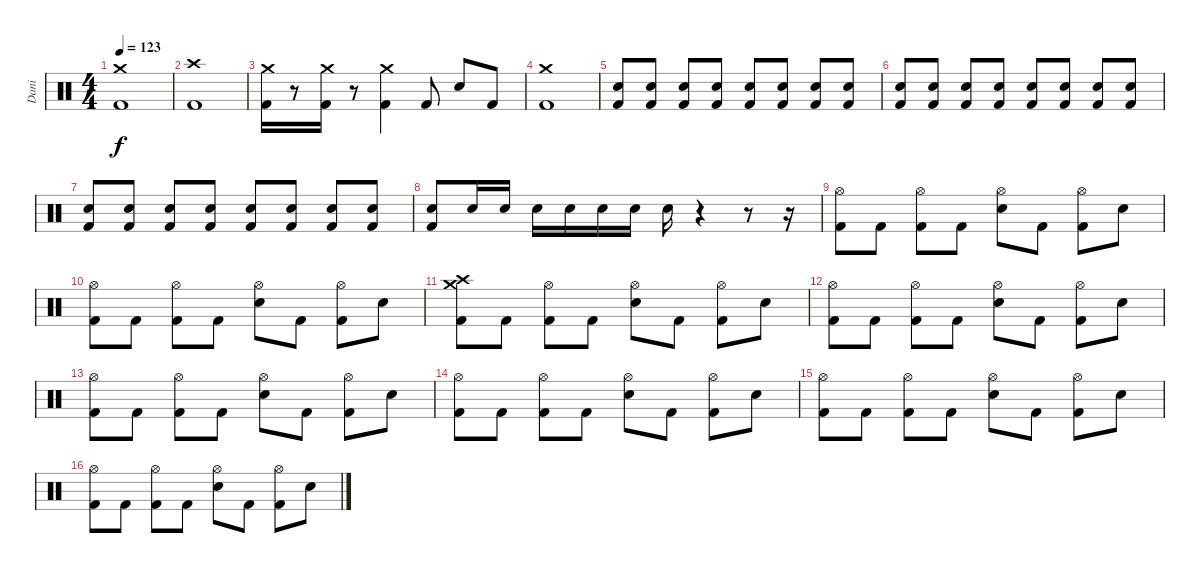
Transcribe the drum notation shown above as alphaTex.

\track ("Dani" "Dani") {instrument percussion}
\staff {score}
\articulation defaults
\ts (4 4)
\tempo 123
\clef neutral
\ks c
("Crash medium (hit)" "Kick (hit) 2").1{dy f} |
("Crash high (hit)" "Kick (hit) 2").1 |
("Crash medium (hit)" "Kick (hit) 2").16 r.8 ("Crash medium (hit)" "Kick (hit) 2").16 r.8 ("Crash medium (hit)" "Kick (hit) 2").4 "Kick (hit) 2".8 "Electric Snare (hit)".8 "Kick (hit) 2".8 |
("Crash medium (hit)" "Kick (hit) 2").1 |
("Electric Snare (hit)" "Kick (hit) 2").8 ("Electric Snare (hit)" "Kick (hit) 2").8 ("Electric Snare (hit)" "Kick (hit) 2").8 ("Electric Snare (hit)" "Kick (hit) 2").8 ("Electric Snare (hit)" "Kick (hit) 2").8 ("Electric Snare (hit)" "Kick (hit) 2").8 ("Electric Snare (hit)" "Kick (hit) 2").8 ("Electric Snare (hit)" "Kick (hit) 2").8 |
("Electric Snare (hit)" "Kick (hit) 2").8 ("Electric Snare (hit)" "Kick (hit) 2").8 ("Electric Snare (hit)" "Kick (hit) 2").8 ("Electric Snare (hit)" "Kick (hit) 2").8 ("Electric Snare (hit)" "Kick (hit) 2").8 ("Electric Snare (hit)" "Kick (hit) 2").8 ("Electric Snare (hit)" "Kick (hit) 2").8 ("Electric Snare (hit)" "Kick (hit) 2").8 |
("Electric Snare (hit)" "Kick (hit) 2").8 ("Electric Snare (hit)" "Kick (hit) 2").8 ("Electric Snare (hit)" "Kick (hit) 2").8 ("Electric Snare (hit)" "Kick (hit) 2").8 ("Electric Snare (hit)" "Kick (hit) 2").8 ("Electric Snare (hit)" "Kick (hit) 2").8 ("Electric Snare (hit)" "Kick (hit) 2").8 ("Electric Snare (hit)" "Kick (hit) 2").8 |
("Electric Snare (hit)" "Kick (hit) 2").8 "Electric Snare (hit)".16 "Electric Snare (hit)".16 "Electric Snare (hit)".16 "Electric Snare (hit)".16 "Electric Snare (hit)".16 "Electric Snare (hit)".16 "Electric Snare (hit)".16 r.4 r.8 r.16 |
("Hi-Hat (open)" "Kick (hit) 2").8 "Kick (hit) 2".8 ("Hi-Hat (open)" "Kick (hit) 2").8 "Kick (hit) 2".8 ("Hi-Hat (open)" "Electric Snare (hit)").8 "Kick (hit) 2".8 ("Hi-Hat (open)" "Kick (hit) 2").8 "Electric Snare (hit)".8 |
("Hi-Hat (open)" "Kick (hit) 2").8 "Kick (hit) 2".8 ("Hi-Hat (open)" "Kick (hit) 2").8 "Kick (hit) 2".8 ("Hi-Hat (open)" "Electric Snare (hit)").8 "Kick (hit) 2".8 ("Hi-Hat (open)" "Kick (hit) 2").8 "Electric Snare (hit)".8 |
("Crash high (hit)" "Crash medium (hit)" "Kick (hit) 2").8 "Kick (hit) 2".8 ("Hi-Hat (open)" "Kick (hit) 2").8 "Kick (hit) 2".8 ("Hi-Hat (open)" "Electric Snare (hit)").8 "Kick (hit) 2".8 ("Hi-Hat (open)" "Kick (hit) 2").8 "Electric Snare (hit)".8 |
("Hi-Hat (open)" "Kick (hit) 2").8 "Kick (hit) 2".8 ("Hi-Hat (open)" "Kick (hit) 2").8 "Kick (hit) 2".8 ("Hi-Hat (open)" "Electric Snare (hit)").8 "Kick (hit) 2".8 ("Hi-Hat (open)" "Kick (hit) 2").8 "Electric Snare (hit)".8 |
("Hi-Hat (open)" "Kick (hit) 2").8 "Kick (hit) 2".8 ("Hi-Hat (open)" "Kick (hit) 2").8 "Kick (hit) 2".8 ("Hi-Hat (open)" "Electric Snare (hit)").8 "Kick (hit) 2".8 ("Hi-Hat (open)" "Kick (hit) 2").8 "Electric Snare (hit)".8 |
("Hi-Hat (open)" "Kick (hit) 2").8 "Kick (hit) 2".8 ("Hi-Hat (open)" "Kick (hit) 2").8 "Kick (hit) 2".8 ("Hi-Hat (open)" "Electric Snare (hit)").8 "Kick (hit) 2".8 ("Hi-Hat (open)" "Kick (hit) 2").8 "Electric Snare (hit)".8 |
("Hi-Hat (open)" "Kick (hit) 2").8 "Kick (hit) 2".8 ("Hi-Hat (open)" "Kick (hit) 2").8 "Kick (hit) 2".8 ("Hi-Hat (open)" "Electric Snare (hit)").8 "Kick (hit) 2".8 ("Hi-Hat (open)" "Kick (hit) 2").8 "Electric Snare (hit)".8 |
("Hi-Hat (open)" "Kick (hit) 2").8 "Kick (hit) 2".8 ("Hi-Hat (open)" "Kick (hit) 2").8 "Kick (hit) 2".8 ("Hi-Hat (open)" "Electric Snare (hit)").8 "Kick (hit) 2".8 ("Hi-Hat (open)" "Kick (hit) 2").8 "Electric Snare (hit)".8
